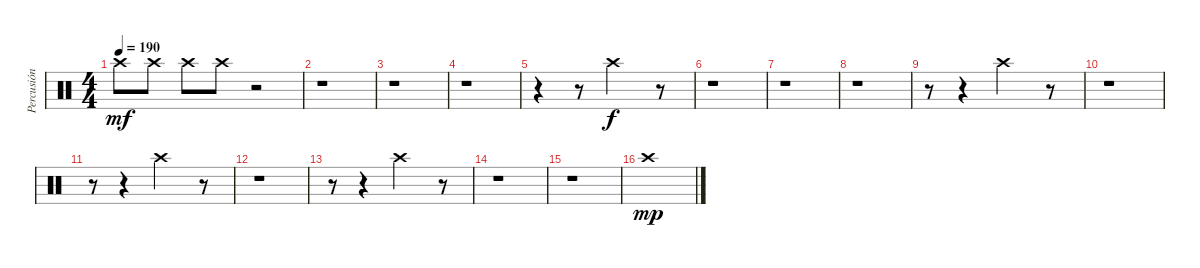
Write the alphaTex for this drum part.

\track ("Percusión" "Percusión") {instrument percussion}
\staff {score}
\articulation defaults
\ts (4 4)
\tempo 190
\clef neutral
\ks c "Crash high (hit)".8{dy mf} "Crash high (hit)".8 "Crash high (hit)".8 "Crash high (hit)".8
r.2 |
r.1 |
r.1 |
r.1 |
r.4 r.8 "Crash high (hit)".2{dy f} r.8 |
r.1 |
r.1 |
r.1 |
r.8 r.4 "Crash high (hit)".2 r.8 |
r.1 |
r.8 r.4 "Crash high (hit)".2 r.8 |
r.1 |
r.8 r.4 "Crash high (hit)".2 r.8 |
r.1 |
r.1 |
"Crash high (hit)".1{dy mp}
